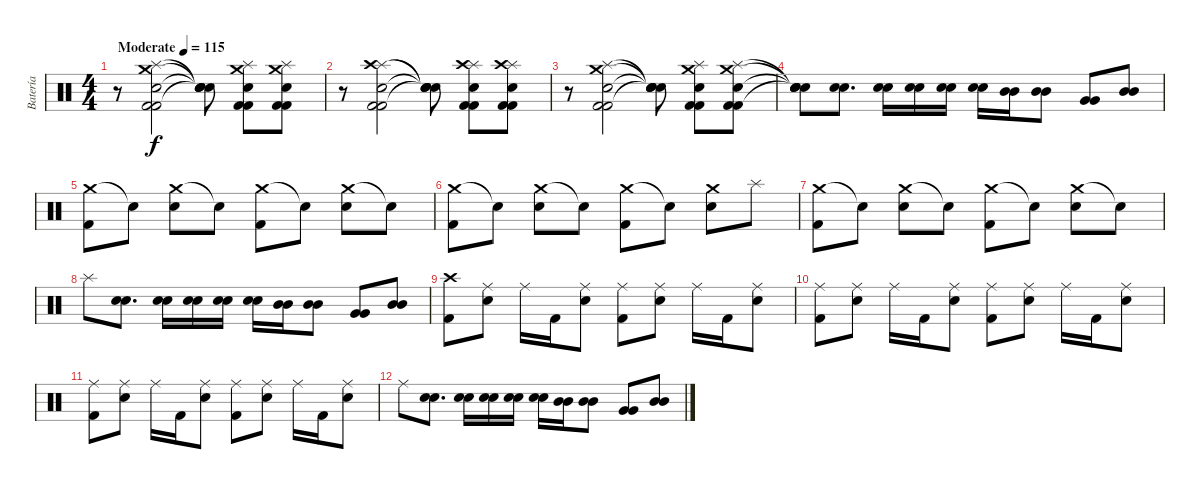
\track ("Batería" "Batería") {instrument percussion}
\staff {score}
\articulation defaults
\ts (4 4)
\tempo (115 "Moderate")
\clef neutral
\ks c
r.8{dy f} ("Splash (hit)" "Crash medium (hit)" "Electric Snare (hit)" "Kick (hit) 2" "Kick (hit) 2").2 ("Snare (hit)"{t} "Snare (hit)"{t} "Snare (hit)"{t} "Snare (hit)"{t}).8 ("Splash (hit)" "Crash medium (hit)" "Electric Snare (hit)" "Kick (hit) 2" "Kick (hit) 2").8 ("Splash (hit)" "Crash medium (hit)" "Electric Snare (hit)" "Kick (hit) 2" "Kick (hit) 2").8 |
r.8 ("Splash (hit)" "Crash high (hit)" "Electric Snare (hit)" "Kick (hit) 2" "Kick (hit) 2").2 ("Snare (hit)"{t} "Snare (hit)"{t} "Snare (hit)"{t} "Snare (hit)"{t}).8 ("Splash (hit)" "Crash high (hit)" "Electric Snare (hit)" "Kick (hit) 2" "Kick (hit) 2").8 ("Splash (hit)" "Crash high (hit)" "Electric Snare (hit)" "Kick (hit) 2" "Kick (hit) 2").8 |
r.8 ("Splash (hit)" "Crash medium (hit)" "Electric Snare (hit)" "Kick (hit) 2" "Kick (hit) 2").2 ("Snare (hit)"{t} "Snare (hit)"{t} "Snare (hit)"{t} "Snare (hit)"{t}).8 ("Splash (hit)" "Crash medium (hit)" "Electric Snare (hit)" "Kick (hit) 2" "Kick (hit) 2").8 ("Splash (hit)" "Crash medium (hit)" "Electric Snare (hit)" "Kick (hit) 2" "Kick (hit) 2").8 |
("Snare (hit)"{t} "Snare (hit)"{t} "Snare (hit)"{t} "Snare (hit)"{t}).8 ("Electric Snare (hit)" "Electric Snare (hit)").8{d} ("Electric Snare (hit)" "Electric Snare (hit)").16 ("Electric Snare (hit)" "Electric Snare (hit)").16 ("Electric Snare (hit)" "Electric Snare (hit)").16 ("Electric Snare (hit)" "Electric Snare (hit)").16 ("Mid Tom (hit)" "Mid Tom (hit)").16 ("Mid Tom (hit)" "Mid Tom (hit)").8 ("Very Low Tom (hit)" "Very Low Tom (hit)").8 ("Mid Tom (hit)" "Mid Tom (hit)").8 |
("Crash medium (hit)" "Kick (hit) 2").8 "Snare (hit)"{t}.8 ("Crash medium (hit)" "Electric Snare (hit)").8 "Snare (hit)"{t}.8 ("Crash medium (hit)" "Kick (hit) 2").8 "Snare (hit)"{t}.8 ("Crash medium (hit)" "Electric Snare (hit)").8 "Snare (hit)"{t}.8 |
("Crash medium (hit)" "Kick (hit) 2").8 "Snare (hit)"{t}.8 ("Crash medium (hit)" "Electric Snare (hit)").8 "Snare (hit)"{t}.8 ("Crash medium (hit)" "Kick (hit) 2").8 "Snare (hit)"{t}.8 ("Crash medium (hit)" "Electric Snare (hit)").8 "Splash (hit)".8 |
("Crash medium (hit)" "Kick (hit) 2").8 "Snare (hit)"{t}.8 ("Crash medium (hit)" "Electric Snare (hit)").8 "Snare (hit)"{t}.8 ("Crash medium (hit)" "Kick (hit) 2").8 "Snare (hit)"{t}.8 ("Crash medium (hit)" "Electric Snare (hit)").8 "Snare (hit)"{t}.8 |
"Splash (hit)".8 ("Electric Snare (hit)" "Electric Snare (hit)").8{d} ("Electric Snare (hit)" "Electric Snare (hit)").16 ("Electric Snare (hit)" "Electric Snare (hit)").16 ("Electric Snare (hit)" "Electric Snare (hit)").16 ("Electric Snare (hit)" "Electric Snare (hit)").16 ("Mid Tom (hit)" "Mid Tom (hit)").16 ("Mid Tom (hit)" "Mid Tom (hit)").8 ("Very Low Tom (hit)" "Very Low Tom (hit)").8 ("Mid Tom (hit)" "Mid Tom (hit)").8 |
("Crash high (hit)" "Kick (hit) 2").8 ("Ride (middle)" "Snare (hit) 2").8 "Ride (middle)".16 "Kick (hit) 2".16 ("Ride (middle)" "Snare (hit) 2").8 ("Ride (middle)" "Kick (hit) 2").8 ("Ride (middle)" "Snare (hit) 2").8 "Ride (middle)".16 "Kick (hit) 2".16 ("Ride (middle)" "Snare (hit) 2").8 |
("Ride (middle)" "Kick (hit) 2").8 ("Ride (middle)" "Snare (hit) 2").8 "Ride (middle)".16 "Kick (hit) 2".16 ("Ride (middle)" "Snare (hit) 2").8 ("Ride (middle)" "Kick (hit) 2").8 ("Ride (middle)" "Snare (hit) 2").8 "Ride (middle)".16 "Kick (hit) 2".16 ("Ride (middle)" "Snare (hit) 2").8 |
("Ride (middle)" "Kick (hit) 2").8 ("Ride (middle)" "Snare (hit) 2").8 "Ride (middle)".16 "Kick (hit) 2".16 ("Ride (middle)" "Snare (hit) 2").8 ("Ride (middle)" "Kick (hit) 2").8 ("Ride (middle)" "Snare (hit) 2").8 "Ride (middle)".16 "Kick (hit) 2".16 ("Ride (middle)" "Snare (hit) 2").8 |
"Ride (middle)".8 ("Electric Snare (hit)" "Electric Snare (hit)").8{d} ("Electric Snare (hit)" "Electric Snare (hit)").16 ("Electric Snare (hit)" "Electric Snare (hit)").16 ("Electric Snare (hit)" "Electric Snare (hit)").16 ("Electric Snare (hit)" "Electric Snare (hit)").16 ("Mid Tom (hit)" "Mid Tom (hit)").16 ("Mid Tom (hit)" "Mid Tom (hit)").8 ("Very Low Tom (hit)" "Very Low Tom (hit)").8 ("Mid Tom (hit)" "Mid Tom (hit)").8
